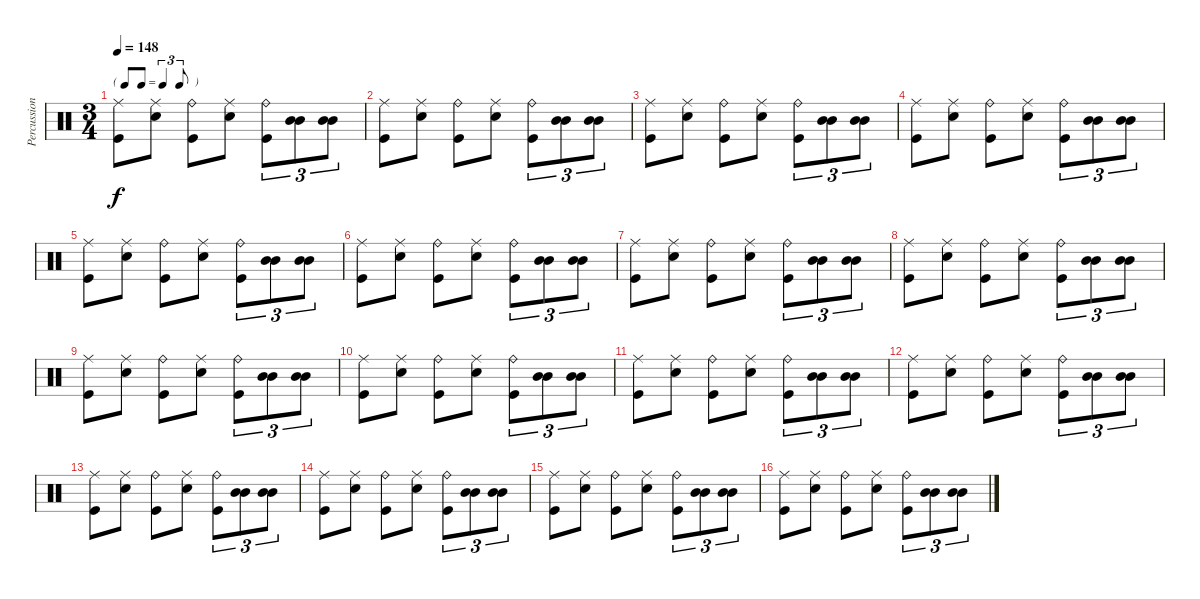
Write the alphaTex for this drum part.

\track ("Percussions" "Percussion") {instrument percussion}
\staff {score}
\articulation defaults
\ts (3 4)
\tf triplet8th
\tempo 148
\clef neutral
\ks c
("Ride (middle)" "Kick (hit)").8{dy f} ("Ride (middle)" "Electric Snare (hit)").8 ("Ride (bell)" "Kick (hit)").8 ("Ride (middle)" "Electric Snare (hit)").8 ("Ride (bell)" "Kick (hit)").8{tu (3 2)} ("Mid Tom (hit)" "Mid Tom (hit)").8{tu (3 2)} ("Mid Tom (hit)" "Mid Tom (hit)").8{tu (3 2)} |
("Ride (middle)" "Kick (hit)").8 ("Ride (middle)" "Electric Snare (hit)").8 ("Ride (bell)" "Kick (hit)").8 ("Ride (middle)" "Electric Snare (hit)").8 ("Ride (bell)" "Kick (hit)").8{tu (3 2)} ("Mid Tom (hit)" "Mid Tom (hit)").8{tu (3 2)} ("Mid Tom (hit)" "Mid Tom (hit)").8{tu (3 2)} |
("Ride (middle)" "Kick (hit)").8 ("Ride (middle)" "Electric Snare (hit)").8 ("Ride (bell)" "Kick (hit)").8 ("Ride (middle)" "Electric Snare (hit)").8 ("Ride (bell)" "Kick (hit)").8{tu (3 2)} ("Mid Tom (hit)" "Mid Tom (hit)").8{tu (3 2)} ("Mid Tom (hit)" "Mid Tom (hit)").8{tu (3 2)} |
("Ride (middle)" "Kick (hit)").8 ("Ride (middle)" "Electric Snare (hit)").8 ("Ride (bell)" "Kick (hit)").8 ("Ride (middle)" "Electric Snare (hit)").8 ("Ride (bell)" "Kick (hit)").8{tu (3 2)} ("Mid Tom (hit)" "Mid Tom (hit)").8{tu (3 2)} ("Mid Tom (hit)" "Mid Tom (hit)").8{tu (3 2)} |
("Ride (middle)" "Kick (hit)").8 ("Ride (middle)" "Electric Snare (hit)").8 ("Ride (bell)" "Kick (hit)").8 ("Ride (middle)" "Electric Snare (hit)").8 ("Ride (bell)" "Kick (hit)").8{tu (3 2)} ("Mid Tom (hit)" "Mid Tom (hit)").8{tu (3 2)} ("Mid Tom (hit)" "Mid Tom (hit)").8{tu (3 2)} |
("Ride (middle)" "Kick (hit)").8 ("Ride (middle)" "Electric Snare (hit)").8 ("Ride (bell)" "Kick (hit)").8 ("Ride (middle)" "Electric Snare (hit)").8 ("Ride (bell)" "Kick (hit)").8{tu (3 2)} ("Mid Tom (hit)" "Mid Tom (hit)").8{tu (3 2)} ("Mid Tom (hit)" "Mid Tom (hit)").8{tu (3 2)} |
("Ride (middle)" "Kick (hit)").8 ("Ride (middle)" "Electric Snare (hit)").8 ("Ride (bell)" "Kick (hit)").8 ("Ride (middle)" "Electric Snare (hit)").8 ("Ride (bell)" "Kick (hit)").8{tu (3 2)} ("Mid Tom (hit)" "Mid Tom (hit)").8{tu (3 2)} ("Mid Tom (hit)" "Mid Tom (hit)").8{tu (3 2)} |
("Ride (middle)" "Kick (hit)").8 ("Ride (middle)" "Electric Snare (hit)").8 ("Ride (bell)" "Kick (hit)").8 ("Ride (middle)" "Electric Snare (hit)").8 ("Ride (bell)" "Kick (hit)").8{tu (3 2)} ("Mid Tom (hit)" "Mid Tom (hit)").8{tu (3 2)} ("Mid Tom (hit)" "Mid Tom (hit)").8{tu (3 2)} |
("Ride (middle)" "Kick (hit)").8 ("Ride (middle)" "Electric Snare (hit)").8 ("Ride (bell)" "Kick (hit)").8 ("Ride (middle)" "Electric Snare (hit)").8 ("Ride (bell)" "Kick (hit)").8{tu (3 2)} ("Mid Tom (hit)" "Mid Tom (hit)").8{tu (3 2)} ("Mid Tom (hit)" "Mid Tom (hit)").8{tu (3 2)} |
("Ride (middle)" "Kick (hit)").8 ("Ride (middle)" "Electric Snare (hit)").8 ("Ride (bell)" "Kick (hit)").8 ("Ride (middle)" "Electric Snare (hit)").8 ("Ride (bell)" "Kick (hit)").8{tu (3 2)} ("Mid Tom (hit)" "Mid Tom (hit)").8{tu (3 2)} ("Mid Tom (hit)" "Mid Tom (hit)").8{tu (3 2)} |
("Ride (middle)" "Kick (hit)").8 ("Ride (middle)" "Electric Snare (hit)").8 ("Ride (bell)" "Kick (hit)").8 ("Ride (middle)" "Electric Snare (hit)").8 ("Ride (bell)" "Kick (hit)").8{tu (3 2)} ("Mid Tom (hit)" "Mid Tom (hit)").8{tu (3 2)} ("Mid Tom (hit)" "Mid Tom (hit)").8{tu (3 2)} |
("Ride (middle)" "Kick (hit)").8 ("Ride (middle)" "Electric Snare (hit)").8 ("Ride (bell)" "Kick (hit)").8 ("Ride (middle)" "Electric Snare (hit)").8 ("Ride (bell)" "Kick (hit)").8{tu (3 2)} ("Mid Tom (hit)" "Mid Tom (hit)").8{tu (3 2)} ("Mid Tom (hit)" "Mid Tom (hit)").8{tu (3 2)} |
("Ride (middle)" "Kick (hit)").8 ("Ride (middle)" "Electric Snare (hit)").8 ("Ride (bell)" "Kick (hit)").8 ("Ride (middle)" "Electric Snare (hit)").8 ("Ride (bell)" "Kick (hit)").8{tu (3 2)} ("Mid Tom (hit)" "Mid Tom (hit)").8{tu (3 2)} ("Mid Tom (hit)" "Mid Tom (hit)").8{tu (3 2)} |
("Ride (middle)" "Kick (hit)").8 ("Ride (middle)" "Electric Snare (hit)").8 ("Ride (bell)" "Kick (hit)").8 ("Ride (middle)" "Electric Snare (hit)").8 ("Ride (bell)" "Kick (hit)").8{tu (3 2)} ("Mid Tom (hit)" "Mid Tom (hit)").8{tu (3 2)} ("Mid Tom (hit)" "Mid Tom (hit)").8{tu (3 2)} |
("Ride (middle)" "Kick (hit)").8 ("Ride (middle)" "Electric Snare (hit)").8 ("Ride (bell)" "Kick (hit)").8 ("Ride (middle)" "Electric Snare (hit)").8 ("Ride (bell)" "Kick (hit)").8{tu (3 2)} ("Mid Tom (hit)" "Mid Tom (hit)").8{tu (3 2)} ("Mid Tom (hit)" "Mid Tom (hit)").8{tu (3 2)} |
("Ride (middle)" "Kick (hit)").8 ("Ride (middle)" "Electric Snare (hit)").8 ("Ride (bell)" "Kick (hit)").8 ("Ride (middle)" "Electric Snare (hit)").8 ("Ride (bell)" "Kick (hit)").8{tu (3 2)} ("Mid Tom (hit)" "Mid Tom (hit)").8{tu (3 2)} ("Mid Tom (hit)" "Mid Tom (hit)").8{tu (3 2)}
